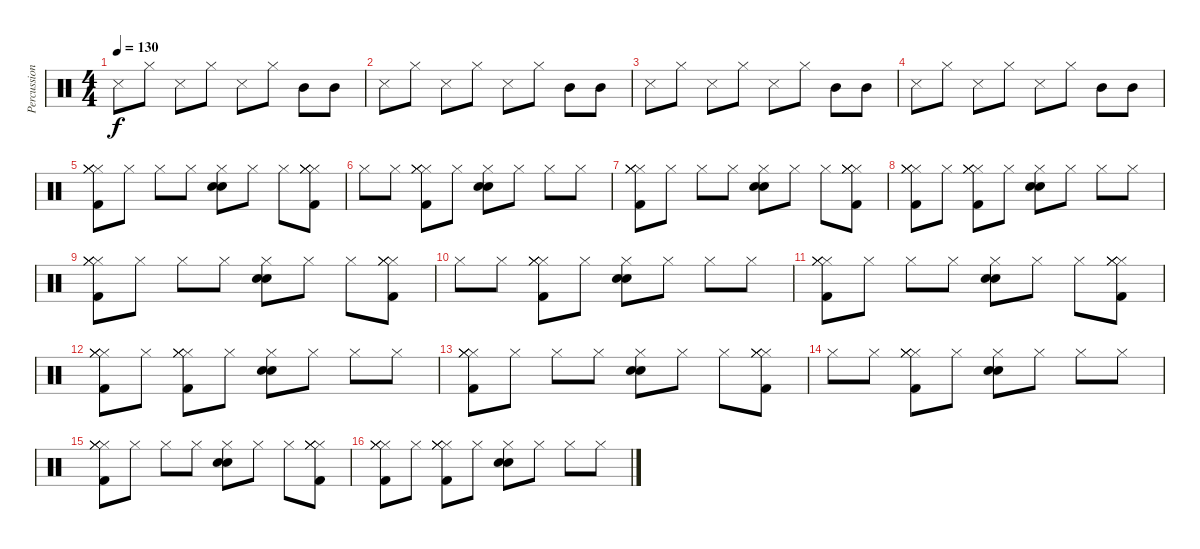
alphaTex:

\track ("Percussion" "Percussion") {instrument percussion}
\staff {score}
\articulation defaults
\ts (4 4)
\tempo 130
\clef neutral
\ks c "Snare (side stick) 3".8{dy f} "Hi-Hat (closed)".8 "Snare (side stick) 3".8 "Hi-Hat (closed)".8 "Snare (side stick) 3".8 "Hi-Hat (closed)".8 "Mid Tom (hit)".8 "Mid Tom (hit)".8
|
"Snare (side stick) 3".8 "Hi-Hat (closed)".8 "Snare (side stick) 3".8 "Hi-Hat (closed)".8 "Snare (side stick) 3".8 "Hi-Hat (closed)".8 "Mid Tom (hit)".8 "Mid Tom (hit)".8 |
"Snare (side stick) 3".8 "Hi-Hat (closed)".8 "Snare (side stick) 3".8 "Hi-Hat (closed)".8 "Snare (side stick) 3".8 "Hi-Hat (closed)".8 "Mid Tom (hit)".8 "Mid Tom (hit)".8 |
"Snare (side stick) 3".8 "Hi-Hat (closed)".8 "Snare (side stick) 3".8 "Hi-Hat (closed)".8 "Snare (side stick) 3".8 "Hi-Hat (closed)".8 "Mid Tom (hit)".8 "Mid Tom (hit)".8 |
("Hi-Hat (closed)" "Hi-Hat (closed)" "Kick (hit) 2" "Hi-Hat (closed)" "Hi-Hat (closed)").8 "Hi-Hat (closed)".8 "Hi-Hat (closed)".8 "Hi-Hat (closed)".8 ("Hi-Hat (closed)" "Snare (hit) 2" "Snare (hit) 2").8 "Hi-Hat (closed)".8 "Hi-Hat (closed)".8 ("Hi-Hat (closed)" "Kick (hit) 2" "Hi-Hat (closed)" "Hi-Hat (closed)" "Hi-Hat (closed)").8 |
"Hi-Hat (closed)".8 "Hi-Hat (closed)".8 ("Hi-Hat (closed)" "Kick (hit) 2" "Hi-Hat (closed)" "Hi-Hat (closed)" "Hi-Hat (closed)").8 "Hi-Hat (closed)".8 ("Hi-Hat (closed)" "Snare (hit) 2" "Snare (hit) 2").8 "Hi-Hat (closed)".8 "Hi-Hat (closed)".8 "Hi-Hat (closed)".8 |
("Hi-Hat (closed)" "Hi-Hat (closed)" "Kick (hit) 2" "Hi-Hat (closed)" "Hi-Hat (closed)").8 "Hi-Hat (closed)".8 "Hi-Hat (closed)".8 "Hi-Hat (closed)".8 ("Hi-Hat (closed)" "Snare (hit) 2" "Snare (hit) 2").8 "Hi-Hat (closed)".8 "Hi-Hat (closed)".8 ("Hi-Hat (closed)" "Kick (hit) 2" "Hi-Hat (closed)" "Hi-Hat (closed)" "Hi-Hat (closed)").8 |
("Hi-Hat (closed)" "Kick (hit) 2" "Hi-Hat (closed)" "Hi-Hat (closed)" "Hi-Hat (closed)").8 "Hi-Hat (closed)".8 ("Hi-Hat (closed)" "Kick (hit) 2" "Hi-Hat (closed)" "Hi-Hat (closed)" "Hi-Hat (closed)").8 "Hi-Hat (closed)".8 ("Hi-Hat (closed)" "Snare (hit) 2" "Snare (hit) 2").8 "Hi-Hat (closed)".8 "Hi-Hat (closed)".8 "Hi-Hat (closed)".8 |
("Hi-Hat (closed)" "Hi-Hat (closed)" "Kick (hit) 2" "Hi-Hat (closed)" "Hi-Hat (closed)").8 "Hi-Hat (closed)".8 "Hi-Hat (closed)".8 "Hi-Hat (closed)".8 ("Hi-Hat (closed)" "Snare (hit) 2" "Snare (hit) 2").8 "Hi-Hat (closed)".8 "Hi-Hat (closed)".8 ("Hi-Hat (closed)" "Kick (hit) 2" "Hi-Hat (closed)" "Hi-Hat (closed)" "Hi-Hat (closed)").8 |
"Hi-Hat (closed)".8 "Hi-Hat (closed)".8 ("Hi-Hat (closed)" "Kick (hit) 2" "Hi-Hat (closed)" "Hi-Hat (closed)" "Hi-Hat (closed)").8 "Hi-Hat (closed)".8 ("Hi-Hat (closed)" "Snare (hit) 2" "Snare (hit) 2").8 "Hi-Hat (closed)".8 "Hi-Hat (closed)".8 "Hi-Hat (closed)".8 |
("Hi-Hat (closed)" "Hi-Hat (closed)" "Kick (hit) 2" "Hi-Hat (closed)" "Hi-Hat (closed)").8 "Hi-Hat (closed)".8 "Hi-Hat (closed)".8 "Hi-Hat (closed)".8 ("Hi-Hat (closed)" "Snare (hit) 2" "Snare (hit) 2").8 "Hi-Hat (closed)".8 "Hi-Hat (closed)".8 ("Hi-Hat (closed)" "Kick (hit) 2" "Hi-Hat (closed)" "Hi-Hat (closed)" "Hi-Hat (closed)").8 |
("Hi-Hat (closed)" "Kick (hit) 2" "Hi-Hat (closed)" "Hi-Hat (closed)" "Hi-Hat (closed)").8 "Hi-Hat (closed)".8 ("Hi-Hat (closed)" "Kick (hit) 2" "Hi-Hat (closed)" "Hi-Hat (closed)" "Hi-Hat (closed)").8 "Hi-Hat (closed)".8 ("Hi-Hat (closed)" "Snare (hit) 2" "Snare (hit) 2").8 "Hi-Hat (closed)".8 "Hi-Hat (closed)".8 "Hi-Hat (closed)".8 |
("Hi-Hat (closed)" "Hi-Hat (closed)" "Kick (hit) 2" "Hi-Hat (closed)" "Hi-Hat (closed)").8 "Hi-Hat (closed)".8 "Hi-Hat (closed)".8 "Hi-Hat (closed)".8 ("Hi-Hat (closed)" "Snare (hit) 2" "Snare (hit) 2").8 "Hi-Hat (closed)".8 "Hi-Hat (closed)".8 ("Hi-Hat (closed)" "Kick (hit) 2" "Hi-Hat (closed)" "Hi-Hat (closed)" "Hi-Hat (closed)").8 |
"Hi-Hat (closed)".8 "Hi-Hat (closed)".8 ("Hi-Hat (closed)" "Kick (hit) 2" "Hi-Hat (closed)" "Hi-Hat (closed)" "Hi-Hat (closed)").8 "Hi-Hat (closed)".8 ("Hi-Hat (closed)" "Snare (hit) 2" "Snare (hit) 2").8 "Hi-Hat (closed)".8 "Hi-Hat (closed)".8 "Hi-Hat (closed)".8 |
("Hi-Hat (closed)" "Hi-Hat (closed)" "Kick (hit) 2" "Hi-Hat (closed)" "Hi-Hat (closed)").8 "Hi-Hat (closed)".8 "Hi-Hat (closed)".8 "Hi-Hat (closed)".8 ("Hi-Hat (closed)" "Snare (hit) 2" "Snare (hit) 2").8 "Hi-Hat (closed)".8 "Hi-Hat (closed)".8 ("Hi-Hat (closed)" "Kick (hit) 2" "Hi-Hat (closed)" "Hi-Hat (closed)" "Hi-Hat (closed)").8 |
("Hi-Hat (closed)" "Kick (hit) 2" "Hi-Hat (closed)" "Hi-Hat (closed)" "Hi-Hat (closed)").8 "Hi-Hat (closed)".8 ("Hi-Hat (closed)" "Kick (hit) 2" "Hi-Hat (closed)" "Hi-Hat (closed)" "Hi-Hat (closed)").8 "Hi-Hat (closed)".8 ("Hi-Hat (closed)" "Snare (hit) 2" "Snare (hit) 2").8 "Hi-Hat (closed)".8 "Hi-Hat (closed)".8 "Hi-Hat (closed)".8
